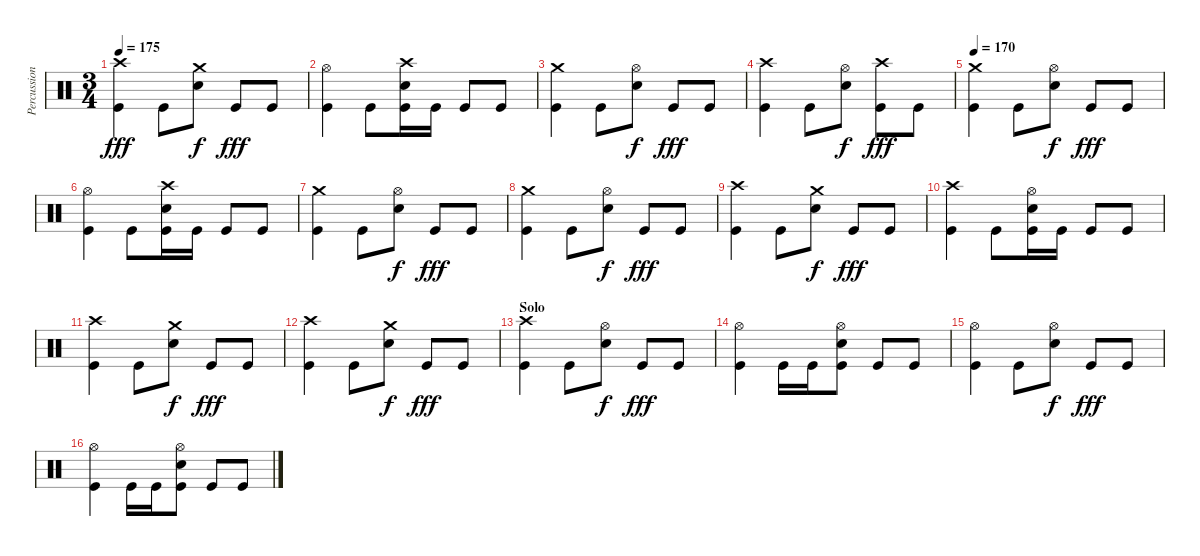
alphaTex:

\track ("Percussion" "Percussion") {instrument percussion}
\staff {score}
\articulation defaults
\ts (3 4)
\tempo 175
\clef neutral
\ks c
("Crash high (hit)" "Kick (hit)").4{dy fff} "Kick (hit)".8 ("Crash medium (hit)" "Electric Snare (hit)").8{dy f} "Kick (hit)".8{dy fff} "Kick (hit)".8 |
("Hi-Hat (open)" "Kick (hit)").4 "Kick (hit)".8 ("Crash high (hit)" "Electric Snare (hit)" "Kick (hit)").16 "Kick (hit)".16 "Kick (hit)".8 "Kick (hit)".8 |
("Crash medium (hit)" "Kick (hit)").4 "Kick (hit)".8 ("Hi-Hat (open)" "Electric Snare (hit)").8{dy f} "Kick (hit)".8{dy fff} "Kick (hit)".8 |
("Crash high (hit)" "Kick (hit)").4 "Kick (hit)".8 ("Hi-Hat (open)" "Electric Snare (hit)").8{dy f} ("Crash high (hit)" "Kick (hit)").8{dy fff} "Kick (hit)".8 |
\tempo 170
("Crash medium (hit)" "Kick (hit)").4 "Kick (hit)".8 ("Hi-Hat (open)" "Electric Snare (hit)").8{dy f} "Kick (hit)".8{dy fff} "Kick (hit)".8 |
("Hi-Hat (open)" "Kick (hit)").4 "Kick (hit)".8 ("Crash high (hit)" "Electric Snare (hit)" "Kick (hit)").16 "Kick (hit)".16 "Kick (hit)".8 "Kick (hit)".8 |
("Crash medium (hit)" "Kick (hit)").4 "Kick (hit)".8 ("Hi-Hat (open)" "Electric Snare (hit)").8{dy f} "Kick (hit)".8{dy fff} "Kick (hit)".8 |
("Crash medium (hit)" "Kick (hit)").4 "Kick (hit)".8 ("Hi-Hat (open)" "Electric Snare (hit)").8{dy f} "Kick (hit)".8{dy fff} "Kick (hit)".8 |
("Crash high (hit)" "Kick (hit)").4 "Kick (hit)".8 ("Crash medium (hit)" "Electric Snare (hit)").8{dy f} "Kick (hit)".8{dy fff} "Kick (hit)".8 |
("Crash high (hit)" "Kick (hit)").4 "Kick (hit)".8 ("Hi-Hat (open)" "Electric Snare (hit)" "Kick (hit)").16 "Kick (hit)".16 "Kick (hit)".8 "Kick (hit)".8 |
("Crash high (hit)" "Kick (hit)").4 "Kick (hit)".8 ("Crash medium (hit)" "Electric Snare (hit)").8{dy f} "Kick (hit)".8{dy fff} "Kick (hit)".8 |
("Crash high (hit)" "Kick (hit)").4 "Kick (hit)".8 ("Crash medium (hit)" "Electric Snare (hit)").8{dy f} "Kick (hit)".8{dy fff} "Kick (hit)".8 |
\section ("" "Solo")
("Crash high (hit)" "Kick (hit)").4 "Kick (hit)".8 ("Hi-Hat (open)" "Electric Snare (hit)").8{dy f} "Kick (hit)".8{dy fff} "Kick (hit)".8 |
("Hi-Hat (open)" "Kick (hit)").4 "Kick (hit)".16 "Kick (hit)".16 ("Hi-Hat (open)" "Electric Snare (hit)" "Kick (hit)").8 "Kick (hit)".8 "Kick (hit)".8 |
("Hi-Hat (open)" "Kick (hit)").4 "Kick (hit)".8 ("Hi-Hat (open)" "Electric Snare (hit)").8{dy f} "Kick (hit)".8{dy fff} "Kick (hit)".8 |
("Hi-Hat (open)" "Kick (hit)").4 "Kick (hit)".16 "Kick (hit)".16 ("Hi-Hat (open)" "Electric Snare (hit)" "Kick (hit)").8 "Kick (hit)".8 "Kick (hit)".8
